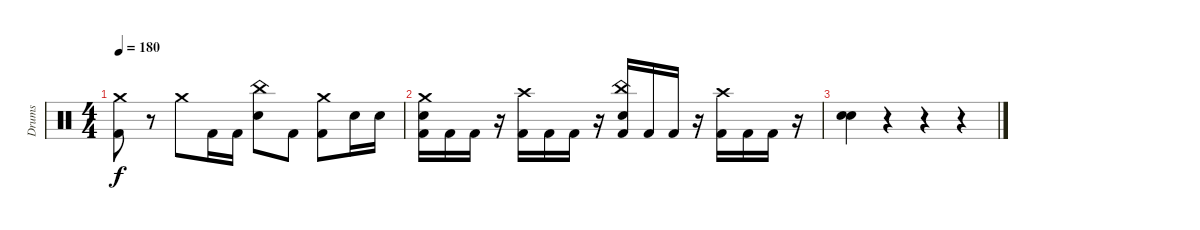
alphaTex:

\track ("Drums" "Drums") {instrument percussion}
\staff {score}
\articulation defaults
\ts (4 4)
\tempo 180
\clef neutral
\ks c
("Crash medium (hit)" "Kick (hit) 2").8{dy f} r.8 "Crash medium (hit)".8 "Kick (hit) 2".16 "Kick (hit) 2".16 ("China (hit)" "Electric Snare (hit)").8 "Kick (hit) 2".8 ("Crash medium (hit)" "Kick (hit) 2").8 "Electric Snare (hit)".16 "Electric Snare (hit)".16 |
("Crash medium (hit)" "Electric Snare (hit)" "Kick (hit) 2").16 "Kick (hit) 2".16 "Kick (hit) 2".16 r.16 ("Crash high (hit)" "Kick (hit) 2").16 "Kick (hit) 2".16 "Kick (hit) 2".16 r.16 ("China (hit)" "Electric Snare (hit)" "Kick (hit) 2").16 "Kick (hit) 2".16 "Kick (hit) 2".16 r.16 ("Crash high (hit)" "Kick (hit) 2").16 "Kick (hit) 2".16 "Kick (hit) 2".16 r.16 |
("Electric Snare (hit)" "Electric Snare (hit)").4 r.4 r.4 r.4
